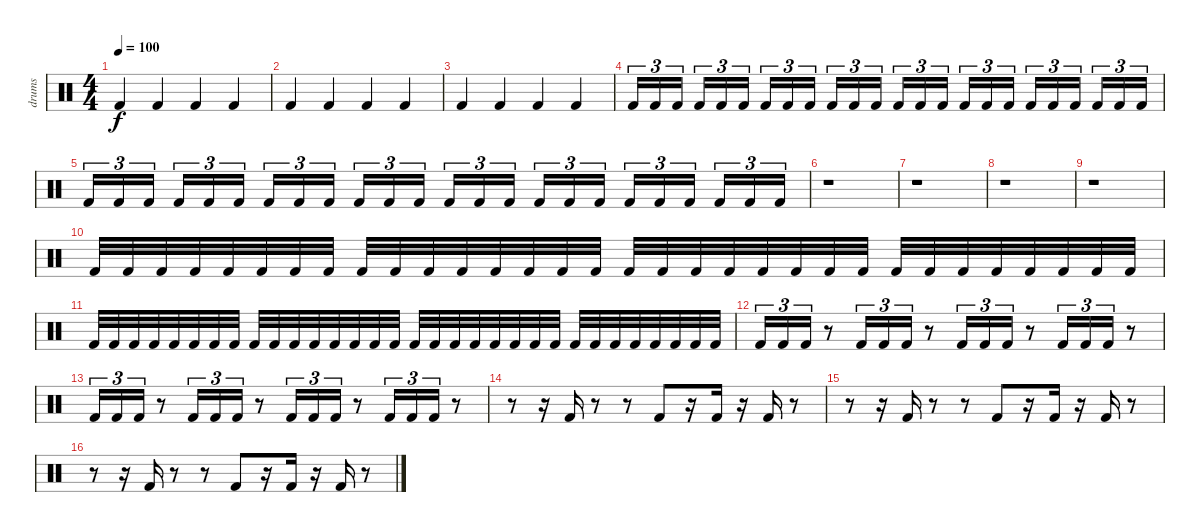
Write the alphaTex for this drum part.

\track ("drums" "drums") {instrument percussion}
\staff {score}
\articulation defaults
\ts (4 4)
\tempo 100
\clef neutral
\ks c "Kick (hit) 2".4{dy f} "Kick (hit) 2".4 "Kick (hit) 2".4 "Kick (hit) 2".4
|
"Kick (hit) 2".4 "Kick (hit) 2".4 "Kick (hit) 2".4 "Kick (hit) 2".4 |
"Kick (hit) 2".4 "Kick (hit) 2".4 "Kick (hit) 2".4 "Kick (hit) 2".4 |
"Kick (hit) 2".16{tu (3 2)} "Kick (hit) 2".16{tu (3 2)} "Kick (hit) 2".16{tu (3 2)} "Kick (hit) 2".16{tu (3 2)} "Kick (hit) 2".16{tu (3 2)} "Kick (hit) 2".16{tu (3 2)} "Kick (hit) 2".16{tu (3 2)} "Kick (hit) 2".16{tu (3 2)} "Kick (hit) 2".16{tu (3 2)} "Kick (hit) 2".16{tu (3 2)} "Kick (hit) 2".16{tu (3 2)} "Kick (hit) 2".16{tu (3 2)} "Kick (hit) 2".16{tu (3 2)} "Kick (hit) 2".16{tu (3 2)} "Kick (hit) 2".16{tu (3 2)} "Kick (hit) 2".16{tu (3 2)} "Kick (hit) 2".16{tu (3 2)} "Kick (hit) 2".16{tu (3 2)} "Kick (hit) 2".16{tu (3 2)} "Kick (hit) 2".16{tu (3 2)} "Kick (hit) 2".16{tu (3 2)} "Kick (hit) 2".16{tu (3 2)} "Kick (hit) 2".16{tu (3 2)} "Kick (hit) 2".16{tu (3 2)} |
"Kick (hit) 2".16{tu (3 2)} "Kick (hit) 2".16{tu (3 2)} "Kick (hit) 2".16{tu (3 2)} "Kick (hit) 2".16{tu (3 2)} "Kick (hit) 2".16{tu (3 2)} "Kick (hit) 2".16{tu (3 2)} "Kick (hit) 2".16{tu (3 2)} "Kick (hit) 2".16{tu (3 2)} "Kick (hit) 2".16{tu (3 2)} "Kick (hit) 2".16{tu (3 2)} "Kick (hit) 2".16{tu (3 2)} "Kick (hit) 2".16{tu (3 2)} "Kick (hit) 2".16{tu (3 2)} "Kick (hit) 2".16{tu (3 2)} "Kick (hit) 2".16{tu (3 2)} "Kick (hit) 2".16{tu (3 2)} "Kick (hit) 2".16{tu (3 2)} "Kick (hit) 2".16{tu (3 2)} "Kick (hit) 2".16{tu (3 2)} "Kick (hit) 2".16{tu (3 2)} "Kick (hit) 2".16{tu (3 2)} "Kick (hit) 2".16{tu (3 2)} "Kick (hit) 2".16{tu (3 2)} "Kick (hit) 2".16{tu (3 2)} |
r.1 |
r.1 |
r.1 |
r.1 |
"Kick (hit) 2".32 "Kick (hit) 2".32 "Kick (hit) 2".32 "Kick (hit) 2".32 "Kick (hit) 2".32 "Kick (hit) 2".32 "Kick (hit) 2".32 "Kick (hit) 2".32 "Kick (hit) 2".32 "Kick (hit) 2".32 "Kick (hit) 2".32 "Kick (hit) 2".32 "Kick (hit) 2".32 "Kick (hit) 2".32 "Kick (hit) 2".32 "Kick (hit) 2".32 "Kick (hit) 2".32 "Kick (hit) 2".32 "Kick (hit) 2".32 "Kick (hit) 2".32 "Kick (hit) 2".32 "Kick (hit) 2".32 "Kick (hit) 2".32 "Kick (hit) 2".32 "Kick (hit) 2".32 "Kick (hit) 2".32 "Kick (hit) 2".32 "Kick (hit) 2".32 "Kick (hit) 2".32 "Kick (hit) 2".32 "Kick (hit) 2".32 "Kick (hit) 2".32 |
"Kick (hit) 2".32 "Kick (hit) 2".32 "Kick (hit) 2".32 "Kick (hit) 2".32 "Kick (hit) 2".32 "Kick (hit) 2".32 "Kick (hit) 2".32 "Kick (hit) 2".32 "Kick (hit) 2".32 "Kick (hit) 2".32 "Kick (hit) 2".32 "Kick (hit) 2".32 "Kick (hit) 2".32 "Kick (hit) 2".32 "Kick (hit) 2".32 "Kick (hit) 2".32 "Kick (hit) 2".32 "Kick (hit) 2".32 "Kick (hit) 2".32 "Kick (hit) 2".32 "Kick (hit) 2".32 "Kick (hit) 2".32 "Kick (hit) 2".32 "Kick (hit) 2".32 "Kick (hit) 2".32 "Kick (hit) 2".32 "Kick (hit) 2".32 "Kick (hit) 2".32 "Kick (hit) 2".32 "Kick (hit) 2".32 "Kick (hit) 2".32 "Kick (hit) 2".32 |
"Kick (hit) 2".16{tu (3 2)} "Kick (hit) 2".16{tu (3 2)} "Kick (hit) 2".16{tu (3 2)} r.8 "Kick (hit) 2".16{tu (3 2)} "Kick (hit) 2".16{tu (3 2)} "Kick (hit) 2".16{tu (3 2)} r.8 "Kick (hit) 2".16{tu (3 2)} "Kick (hit) 2".16{tu (3 2)} "Kick (hit) 2".16{tu (3 2)} r.8 "Kick (hit) 2".16{tu (3 2)} "Kick (hit) 2".16{tu (3 2)} "Kick (hit) 2".16{tu (3 2)} r.8 |
"Kick (hit) 2".16{tu (3 2)} "Kick (hit) 2".16{tu (3 2)} "Kick (hit) 2".16{tu (3 2)} r.8 "Kick (hit) 2".16{tu (3 2)} "Kick (hit) 2".16{tu (3 2)} "Kick (hit) 2".16{tu (3 2)} r.8 "Kick (hit) 2".16{tu (3 2)} "Kick (hit) 2".16{tu (3 2)} "Kick (hit) 2".16{tu (3 2)} r.8 "Kick (hit) 2".16{tu (3 2)} "Kick (hit) 2".16{tu (3 2)} "Kick (hit) 2".16{tu (3 2)} r.8 |
r.8 r.16 "Kick (hit) 2".16 r.8 r.8 "Kick (hit) 2".8 r.16 "Kick (hit) 2".16 r.16 "Kick (hit) 2".16 r.8 |
r.8 r.16 "Kick (hit) 2".16 r.8 r.8 "Kick (hit) 2".8 r.16 "Kick (hit) 2".16 r.16 "Kick (hit) 2".16 r.8 |
r.8 r.16 "Kick (hit) 2".16 r.8 r.8 "Kick (hit) 2".8 r.16 "Kick (hit) 2".16 r.16 "Kick (hit) 2".16 r.8
